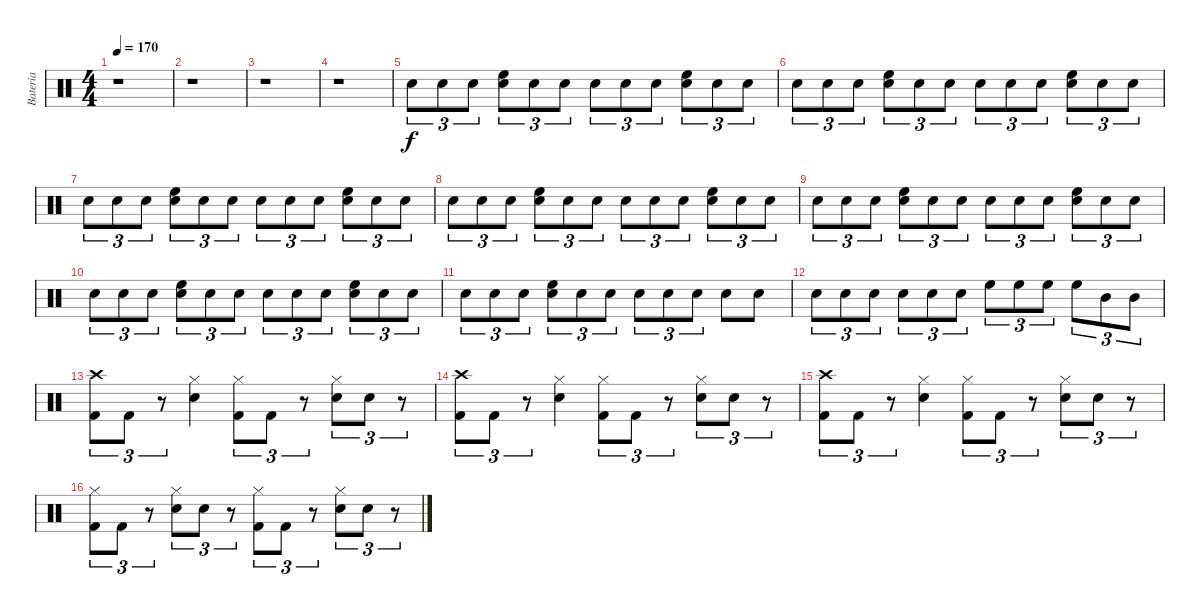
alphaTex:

\track ("Bateria" "Bateria") {instrument percussion}
\staff {score}
\articulation defaults
\ts (4 4)
\tempo 170
\clef neutral
\ks c
r.1{dy f} |
r.1 |
r.1 |
r.1 |
"Snare (hit) 2".8{tu (3 2)} "Snare (hit) 2".8{tu (3 2)} "Snare (hit) 2".8{tu (3 2)} ("High Floor Tom (hit)" "Snare (hit) 2").8{tu (3 2)} "Snare (hit) 2".8{tu (3 2)} "Snare (hit) 2".8{tu (3 2)} "Snare (hit) 2".8{tu (3 2)} "Snare (hit) 2".8{tu (3 2)} "Snare (hit) 2".8{tu (3 2)} ("High Floor Tom (hit)" "Snare (hit) 2").8{tu (3 2)} "Snare (hit) 2".8{tu (3 2)} "Snare (hit) 2".8{tu (3 2)} |
"Snare (hit) 2".8{tu (3 2)} "Snare (hit) 2".8{tu (3 2)} "Snare (hit) 2".8{tu (3 2)} ("High Floor Tom (hit)" "Snare (hit) 2").8{tu (3 2)} "Snare (hit) 2".8{tu (3 2)} "Snare (hit) 2".8{tu (3 2)} "Snare (hit) 2".8{tu (3 2)} "Snare (hit) 2".8{tu (3 2)} "Snare (hit) 2".8{tu (3 2)} ("High Floor Tom (hit)" "Snare (hit) 2").8{tu (3 2)} "Snare (hit) 2".8{tu (3 2)} "Snare (hit) 2".8{tu (3 2)} |
"Snare (hit) 2".8{tu (3 2)} "Snare (hit) 2".8{tu (3 2)} "Snare (hit) 2".8{tu (3 2)} ("High Floor Tom (hit)" "Snare (hit) 2").8{tu (3 2)} "Snare (hit) 2".8{tu (3 2)} "Snare (hit) 2".8{tu (3 2)} "Snare (hit) 2".8{tu (3 2)} "Snare (hit) 2".8{tu (3 2)} "Snare (hit) 2".8{tu (3 2)} ("High Floor Tom (hit)" "Snare (hit) 2").8{tu (3 2)} "Snare (hit) 2".8{tu (3 2)} "Snare (hit) 2".8{tu (3 2)} |
"Snare (hit) 2".8{tu (3 2)} "Snare (hit) 2".8{tu (3 2)} "Snare (hit) 2".8{tu (3 2)} ("High Floor Tom (hit)" "Snare (hit) 2").8{tu (3 2)} "Snare (hit) 2".8{tu (3 2)} "Snare (hit) 2".8{tu (3 2)} "Snare (hit) 2".8{tu (3 2)} "Snare (hit) 2".8{tu (3 2)} "Snare (hit) 2".8{tu (3 2)} ("High Floor Tom (hit)" "Snare (hit) 2").8{tu (3 2)} "Snare (hit) 2".8{tu (3 2)} "Snare (hit) 2".8{tu (3 2)} |
"Snare (hit) 2".8{tu (3 2)} "Snare (hit) 2".8{tu (3 2)} "Snare (hit) 2".8{tu (3 2)} ("High Floor Tom (hit)" "Snare (hit) 2").8{tu (3 2)} "Snare (hit) 2".8{tu (3 2)} "Snare (hit) 2".8{tu (3 2)} "Snare (hit) 2".8{tu (3 2)} "Snare (hit) 2".8{tu (3 2)} "Snare (hit) 2".8{tu (3 2)} ("High Floor Tom (hit)" "Snare (hit) 2").8{tu (3 2)} "Snare (hit) 2".8{tu (3 2)} "Snare (hit) 2".8{tu (3 2)} |
"Snare (hit) 2".8{tu (3 2)} "Snare (hit) 2".8{tu (3 2)} "Snare (hit) 2".8{tu (3 2)} ("High Floor Tom (hit)" "Snare (hit) 2").8{tu (3 2)} "Snare (hit) 2".8{tu (3 2)} "Snare (hit) 2".8{tu (3 2)} "Snare (hit) 2".8{tu (3 2)} "Snare (hit) 2".8{tu (3 2)} "Snare (hit) 2".8{tu (3 2)} ("High Floor Tom (hit)" "Snare (hit) 2").8{tu (3 2)} "Snare (hit) 2".8{tu (3 2)} "Snare (hit) 2".8{tu (3 2)} |
"Snare (hit) 2".8{tu (3 2)} "Snare (hit) 2".8{tu (3 2)} "Snare (hit) 2".8{tu (3 2)} ("High Floor Tom (hit)" "Snare (hit) 2").8{tu (3 2)} "Snare (hit) 2".8{tu (3 2)} "Snare (hit) 2".8{tu (3 2)} "Snare (hit) 2".8{tu (3 2)} "Snare (hit) 2".8{tu (3 2)} "Snare (hit) 2".8{tu (3 2)} "Snare (hit) 2".8 "Snare (hit) 2".8 |
"Snare (hit) 2".8{tu (3 2)} "Snare (hit) 2".8{tu (3 2)} "Snare (hit) 2".8{tu (3 2)} "Snare (hit) 2".8{tu (3 2)} "Snare (hit) 2".8{tu (3 2)} "Snare (hit) 2".8{tu (3 2)} "High Floor Tom (hit)".8{tu (3 2)} "High Floor Tom (hit)".8{tu (3 2)} "High Floor Tom (hit)".8{tu (3 2)} "High Floor Tom (hit)".8{tu (3 2)} "Mid Tom (hit)".8{tu (3 2)} "Mid Tom (hit)".8{tu (3 2)} |
("Crash high (hit)" "Kick (hit) 2").8{tu (3 2)} "Kick (hit) 2".8{tu (3 2)} r.8{tu (3 2)} ("Hi-Hat (closed)" "Snare (hit) 2").4 ("Hi-Hat (closed)" "Kick (hit) 2").8{tu (3 2)} "Kick (hit) 2".8{tu (3 2)} r.8{tu (3 2)} ("Hi-Hat (closed)" "Snare (hit) 2").8{tu (3 2)} "Snare (hit) 2".8{tu (3 2)} r.8{tu (3 2)} |
("Crash high (hit)" "Kick (hit) 2").8{tu (3 2)} "Kick (hit) 2".8{tu (3 2)} r.8{tu (3 2)} ("Hi-Hat (closed)" "Snare (hit) 2").4 ("Hi-Hat (closed)" "Kick (hit) 2").8{tu (3 2)} "Kick (hit) 2".8{tu (3 2)} r.8{tu (3 2)} ("Hi-Hat (closed)" "Snare (hit) 2").8{tu (3 2)} "Snare (hit) 2".8{tu (3 2)} r.8{tu (3 2)} |
("Crash high (hit)" "Kick (hit) 2").8{tu (3 2)} "Kick (hit) 2".8{tu (3 2)} r.8{tu (3 2)} ("Hi-Hat (closed)" "Snare (hit) 2").4 ("Hi-Hat (closed)" "Kick (hit) 2").8{tu (3 2)} "Kick (hit) 2".8{tu (3 2)} r.8{tu (3 2)} ("Hi-Hat (closed)" "Snare (hit) 2").8{tu (3 2)} "Snare (hit) 2".8{tu (3 2)} r.8{tu (3 2)} |
("Hi-Hat (closed)" "Kick (hit) 2").8{tu (3 2)} "Kick (hit) 2".8{tu (3 2)} r.8{tu (3 2)} ("Hi-Hat (closed)" "Snare (hit) 2").8{tu (3 2)} "Snare (hit) 2".8{tu (3 2)} r.8{tu (3 2)} ("Hi-Hat (closed)" "Kick (hit) 2").8{tu (3 2)} "Kick (hit) 2".8{tu (3 2)} r.8{tu (3 2)} ("Hi-Hat (closed)" "Snare (hit) 2").8{tu (3 2)} "Snare (hit) 2".8{tu (3 2)} r.8{tu (3 2)}
